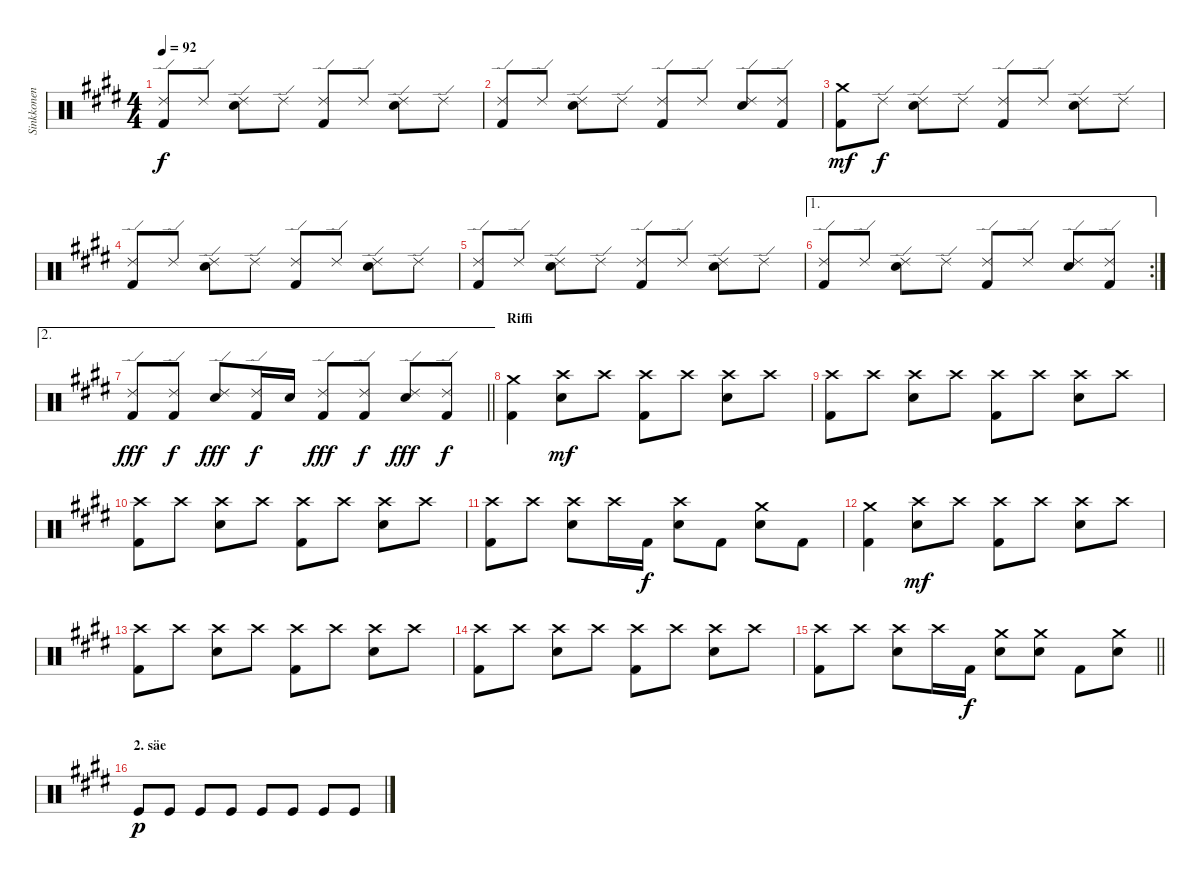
\track ("Sinkkonen" "Sinkkonen") {instrument percussion}
\staff {score}
\articulation defaults
\ts (4 4)
\tempo 92
\clef neutral
\ks c#minor
("Kick (hit) 2" "Ride (edge) 2").8{dy f} "Ride (edge) 2".8 ("Ride (edge) 2" "Snare (hit) 2").8 "Ride (edge) 2".8 ("Kick (hit) 2" "Ride (edge) 2").8 "Ride (edge) 2".8 ("Ride (edge) 2" "Snare (hit) 2").8 "Ride (edge) 2".8 |
("Kick (hit) 2" "Ride (edge) 2").8 "Ride (edge) 2".8 ("Ride (edge) 2" "Snare (hit) 2").8 "Ride (edge) 2".8 ("Kick (hit) 2" "Ride (edge) 2").8 "Ride (edge) 2".8 ("Ride (edge) 2" "Snare (hit) 2").8 ("Kick (hit) 2" "Ride (edge) 2").8 |
("Kick (hit) 2" "Crash medium (hit)").8{dy mf} "Ride (edge) 2".8{dy f} ("Ride (edge) 2" "Snare (hit) 2").8 "Ride (edge) 2".8 ("Kick (hit) 2" "Ride (edge) 2").8 "Ride (edge) 2".8 ("Ride (edge) 2" "Snare (hit) 2").8 "Ride (edge) 2".8 |
("Kick (hit) 2" "Ride (edge) 2").8 "Ride (edge) 2".8 ("Ride (edge) 2" "Snare (hit) 2").8 "Ride (edge) 2".8 ("Kick (hit) 2" "Ride (edge) 2").8 "Ride (edge) 2".8 ("Ride (edge) 2" "Snare (hit) 2").8 "Ride (edge) 2".8 |
("Kick (hit) 2" "Ride (edge) 2").8 "Ride (edge) 2".8 ("Ride (edge) 2" "Snare (hit) 2").8 "Ride (edge) 2".8 ("Kick (hit) 2" "Ride (edge) 2").8 "Ride (edge) 2".8 ("Ride (edge) 2" "Snare (hit) 2").8 "Ride (edge) 2".8 |
\ae 1
\rc 2
("Kick (hit) 2" "Ride (edge) 2").8 "Ride (edge) 2".8 ("Ride (edge) 2" "Snare (hit) 2").8 "Ride (edge) 2".8 ("Kick (hit) 2" "Ride (edge) 2").8 "Ride (edge) 2".8 ("Ride (edge) 2" "Snare (hit) 2").8 ("Kick (hit) 2" "Ride (edge) 2").8 |
\ae 2
\barLineRight lightlight
("Kick (hit) 2" "Ride (edge) 2").8{dy fff} ("Kick (hit) 2" "Ride (edge) 2").8{dy f} ("Ride (edge) 2" "Snare (hit) 2").8{dy fff} ("Kick (hit) 2" "Ride (edge) 2").16{dy f} "Snare (hit) 2".16 ("Kick (hit) 2" "Ride (edge) 2").8{dy fff} ("Kick (hit) 2" "Ride (edge) 2").8{dy f} ("Ride (edge) 2" "Snare (hit) 2").8{dy fff} ("Kick (hit) 2" "Ride (edge) 2").8{dy f} |
\section ("" "Riffi")
("Kick (hit) 2" "Crash medium (hit)").4 ("Crash high (hit)" "Snare (hit) 2").8{dy mf} "Crash high (hit)".8 ("Kick (hit) 2" "Crash high (hit)").8 "Crash high (hit)".8 ("Crash high (hit)" "Snare (hit) 2").8 "Crash high (hit)".8 |
("Kick (hit) 2" "Crash high (hit)").8 "Crash high (hit)".8 ("Crash high (hit)" "Snare (hit) 2").8 "Crash high (hit)".8 ("Kick (hit) 2" "Crash high (hit)").8 "Crash high (hit)".8 ("Crash high (hit)" "Snare (hit) 2").8 "Crash high (hit)".8 |
("Kick (hit) 2" "Crash high (hit)").8 "Crash high (hit)".8 ("Crash high (hit)" "Snare (hit) 2").8 "Crash high (hit)".8 ("Kick (hit) 2" "Crash high (hit)").8 "Crash high (hit)".8 ("Crash high (hit)" "Snare (hit) 2").8 "Crash high (hit)".8 |
("Kick (hit) 2" "Crash high (hit)").8 "Crash high (hit)".8 ("Crash high (hit)" "Snare (hit) 2").8 "Crash high (hit)".16 "Kick (hit) 2".16{dy f} ("Crash high (hit)" "Snare (hit) 2").8 "Kick (hit) 2".8 ("Crash medium (hit)" "Snare (hit) 2").8 "Kick (hit) 2".8 |
("Kick (hit) 2" "Crash medium (hit)").4 ("Crash high (hit)" "Snare (hit) 2").8{dy mf} "Crash high (hit)".8 ("Kick (hit) 2" "Crash high (hit)").8 "Crash high (hit)".8 ("Crash high (hit)" "Snare (hit) 2").8 "Crash high (hit)".8 |
("Kick (hit) 2" "Crash high (hit)").8 "Crash high (hit)".8 ("Crash high (hit)" "Snare (hit) 2").8 "Crash high (hit)".8 ("Kick (hit) 2" "Crash high (hit)").8 "Crash high (hit)".8 ("Crash high (hit)" "Snare (hit) 2").8 "Crash high (hit)".8 |
("Kick (hit) 2" "Crash high (hit)").8 "Crash high (hit)".8 ("Crash high (hit)" "Snare (hit) 2").8 "Crash high (hit)".8 ("Kick (hit) 2" "Crash high (hit)").8 "Crash high (hit)".8 ("Crash high (hit)" "Snare (hit) 2").8 "Crash high (hit)".8 |
\barLineRight lightlight
("Kick (hit) 2" "Crash high (hit)").8 "Crash high (hit)".8 ("Crash high (hit)" "Snare (hit) 2").8 "Crash high (hit)".16 "Kick (hit) 2".16{dy f} ("Crash medium (hit)" "Snare (hit) 2").8 ("Crash medium (hit)" "Snare (hit) 2").8 "Kick (hit) 2".8 ("Crash medium (hit)" "Snare (hit) 2").8 |
\section ("" "2. säe")
"Kick (hit)".8{dy p} "Kick (hit)".8 "Kick (hit)".8 "Kick (hit)".8 "Kick (hit)".8 "Kick (hit)".8 "Kick (hit)".8 "Kick (hit)".8
